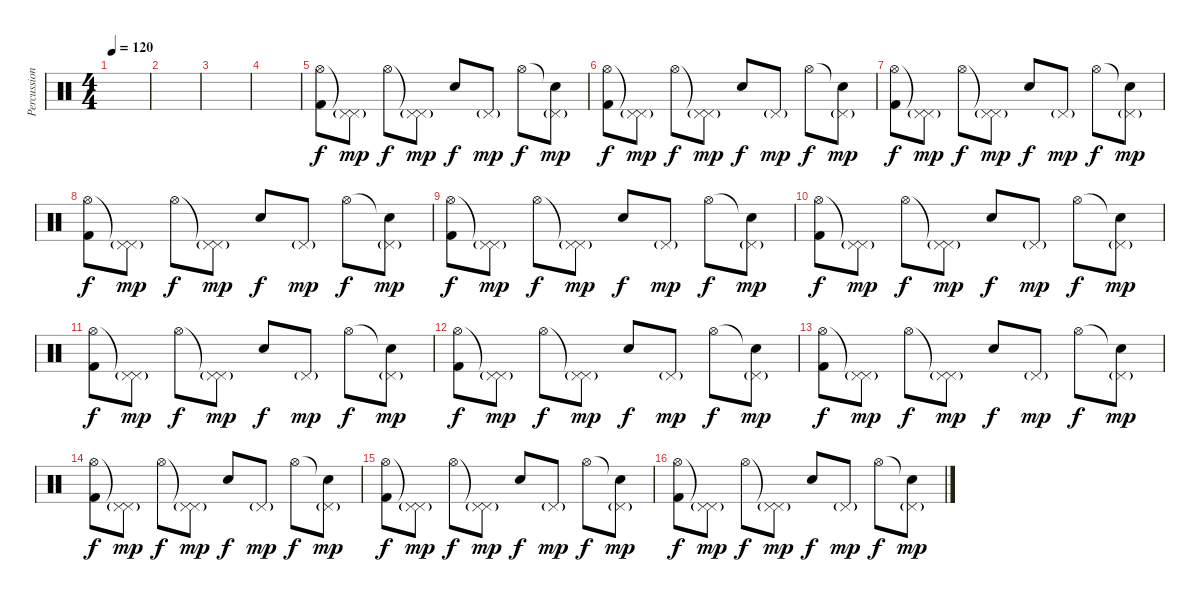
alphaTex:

\track ("Percussion" "Percussion") {instrument percussion}
\staff {score}
\articulation defaults
\ts (4 4)
\tempo 120
\clef neutral
\ks c
|
|
|
|
("Hi-Hat (open)" "Kick (hit) 2").8{dy f} ("Pedal Hi-Hat (hit)"{t} "Pedal Hi-Hat (hit)"{g}).8{dy mp} "Hi-Hat (open)".8{dy f} ("Pedal Hi-Hat (hit)"{t} "Pedal Hi-Hat (hit)"{g}).8{dy mp} "Snare (hit) 2".8{dy f} "Pedal Hi-Hat (hit)"{g}.8{dy mp} "Hi-Hat (open)".8{dy f} ("Snare (hit)"{t} "Pedal Hi-Hat (hit)"{g}).8{dy mp} |
("Hi-Hat (open)" "Kick (hit) 2").8{dy f} ("Pedal Hi-Hat (hit)"{t} "Pedal Hi-Hat (hit)"{g}).8{dy mp} "Hi-Hat (open)".8{dy f} ("Pedal Hi-Hat (hit)"{t} "Pedal Hi-Hat (hit)"{g}).8{dy mp} "Snare (hit) 2".8{dy f} "Pedal Hi-Hat (hit)"{g}.8{dy mp} "Hi-Hat (open)".8{dy f} ("Snare (hit)"{t} "Pedal Hi-Hat (hit)"{g}).8{dy mp} |
("Hi-Hat (open)" "Kick (hit) 2").8{dy f} ("Pedal Hi-Hat (hit)"{t} "Pedal Hi-Hat (hit)"{g}).8{dy mp} "Hi-Hat (open)".8{dy f} ("Pedal Hi-Hat (hit)"{t} "Pedal Hi-Hat (hit)"{g}).8{dy mp} "Snare (hit) 2".8{dy f} "Pedal Hi-Hat (hit)"{g}.8{dy mp} "Hi-Hat (open)".8{dy f} ("Snare (hit)"{t} "Pedal Hi-Hat (hit)"{g}).8{dy mp} |
("Hi-Hat (open)" "Kick (hit) 2").8{dy f} ("Pedal Hi-Hat (hit)"{t} "Pedal Hi-Hat (hit)"{g}).8{dy mp} "Hi-Hat (open)".8{dy f} ("Pedal Hi-Hat (hit)"{t} "Pedal Hi-Hat (hit)"{g}).8{dy mp} "Snare (hit) 2".8{dy f} "Pedal Hi-Hat (hit)"{g}.8{dy mp} "Hi-Hat (open)".8{dy f} ("Snare (hit)"{t} "Pedal Hi-Hat (hit)"{g}).8{dy mp} |
("Hi-Hat (open)" "Kick (hit) 2").8{dy f} ("Pedal Hi-Hat (hit)"{t} "Pedal Hi-Hat (hit)"{g}).8{dy mp} "Hi-Hat (open)".8{dy f} ("Pedal Hi-Hat (hit)"{t} "Pedal Hi-Hat (hit)"{g}).8{dy mp} "Snare (hit) 2".8{dy f} "Pedal Hi-Hat (hit)"{g}.8{dy mp} "Hi-Hat (open)".8{dy f} ("Snare (hit)"{t} "Pedal Hi-Hat (hit)"{g}).8{dy mp} |
("Hi-Hat (open)" "Kick (hit) 2").8{dy f} ("Pedal Hi-Hat (hit)"{t} "Pedal Hi-Hat (hit)"{g}).8{dy mp} "Hi-Hat (open)".8{dy f} ("Pedal Hi-Hat (hit)"{t} "Pedal Hi-Hat (hit)"{g}).8{dy mp} "Snare (hit) 2".8{dy f} "Pedal Hi-Hat (hit)"{g}.8{dy mp} "Hi-Hat (open)".8{dy f} ("Snare (hit)"{t} "Pedal Hi-Hat (hit)"{g}).8{dy mp} |
("Hi-Hat (open)" "Kick (hit) 2").8{dy f} ("Pedal Hi-Hat (hit)"{t} "Pedal Hi-Hat (hit)"{g}).8{dy mp} "Hi-Hat (open)".8{dy f} ("Pedal Hi-Hat (hit)"{t} "Pedal Hi-Hat (hit)"{g}).8{dy mp} "Snare (hit) 2".8{dy f} "Pedal Hi-Hat (hit)"{g}.8{dy mp} "Hi-Hat (open)".8{dy f} ("Snare (hit)"{t} "Pedal Hi-Hat (hit)"{g}).8{dy mp} |
("Hi-Hat (open)" "Kick (hit) 2").8{dy f} ("Pedal Hi-Hat (hit)"{t} "Pedal Hi-Hat (hit)"{g}).8{dy mp} "Hi-Hat (open)".8{dy f} ("Pedal Hi-Hat (hit)"{t} "Pedal Hi-Hat (hit)"{g}).8{dy mp} "Snare (hit) 2".8{dy f} "Pedal Hi-Hat (hit)"{g}.8{dy mp} "Hi-Hat (open)".8{dy f} ("Snare (hit)"{t} "Pedal Hi-Hat (hit)"{g}).8{dy mp} |
("Hi-Hat (open)" "Kick (hit) 2").8{dy f} ("Pedal Hi-Hat (hit)"{t} "Pedal Hi-Hat (hit)"{g}).8{dy mp} "Hi-Hat (open)".8{dy f} ("Pedal Hi-Hat (hit)"{t} "Pedal Hi-Hat (hit)"{g}).8{dy mp} "Snare (hit) 2".8{dy f} "Pedal Hi-Hat (hit)"{g}.8{dy mp} "Hi-Hat (open)".8{dy f} ("Snare (hit)"{t} "Pedal Hi-Hat (hit)"{g}).8{dy mp} |
("Hi-Hat (open)" "Kick (hit) 2").8{dy f} ("Pedal Hi-Hat (hit)"{t} "Pedal Hi-Hat (hit)"{g}).8{dy mp} "Hi-Hat (open)".8{dy f} ("Pedal Hi-Hat (hit)"{t} "Pedal Hi-Hat (hit)"{g}).8{dy mp} "Snare (hit) 2".8{dy f} "Pedal Hi-Hat (hit)"{g}.8{dy mp} "Hi-Hat (open)".8{dy f} ("Snare (hit)"{t} "Pedal Hi-Hat (hit)"{g}).8{dy mp} |
("Hi-Hat (open)" "Kick (hit) 2").8{dy f} ("Pedal Hi-Hat (hit)"{t} "Pedal Hi-Hat (hit)"{g}).8{dy mp} "Hi-Hat (open)".8{dy f} ("Pedal Hi-Hat (hit)"{t} "Pedal Hi-Hat (hit)"{g}).8{dy mp} "Snare (hit) 2".8{dy f} "Pedal Hi-Hat (hit)"{g}.8{dy mp} "Hi-Hat (open)".8{dy f} ("Snare (hit)"{t} "Pedal Hi-Hat (hit)"{g}).8{dy mp} |
("Hi-Hat (open)" "Kick (hit) 2").8{dy f} ("Pedal Hi-Hat (hit)"{t} "Pedal Hi-Hat (hit)"{g}).8{dy mp} "Hi-Hat (open)".8{dy f} ("Pedal Hi-Hat (hit)"{t} "Pedal Hi-Hat (hit)"{g}).8{dy mp} "Snare (hit) 2".8{dy f} "Pedal Hi-Hat (hit)"{g}.8{dy mp} "Hi-Hat (open)".8{dy f} ("Snare (hit)"{t} "Pedal Hi-Hat (hit)"{g}).8{dy mp}
